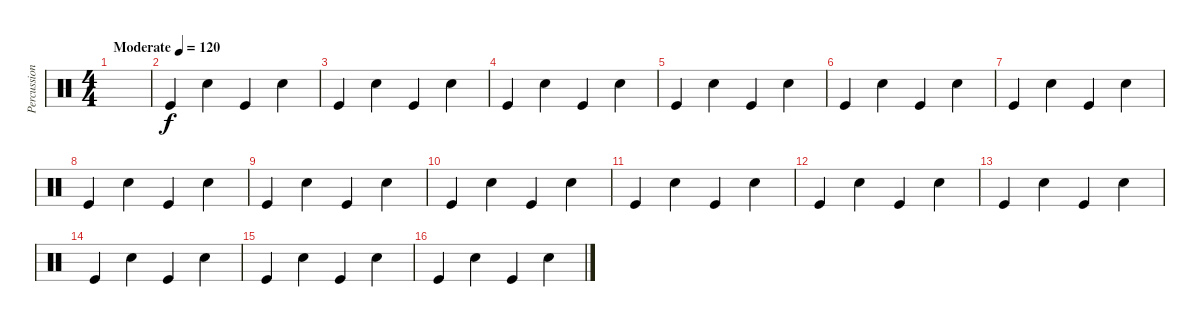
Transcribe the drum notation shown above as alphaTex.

\track ("Percussion" "Percussion") {instrument percussion}
\staff {score}
\articulation defaults
\ts (4 4)
\tempo (120 "Moderate")
\clef neutral
\ks c
|
"Kick (hit)".4 "Snare (hit) 2".4 "Kick (hit)".4 "Snare (hit) 2".4 |
"Kick (hit)".4 "Snare (hit) 2".4 "Kick (hit)".4 "Snare (hit) 2".4 |
"Kick (hit)".4 "Snare (hit) 2".4 "Kick (hit)".4 "Snare (hit) 2".4 |
"Kick (hit)".4 "Snare (hit) 2".4 "Kick (hit)".4 "Snare (hit) 2".4 |
"Kick (hit)".4 "Snare (hit) 2".4 "Kick (hit)".4 "Snare (hit) 2".4 |
"Kick (hit)".4 "Snare (hit) 2".4 "Kick (hit)".4 "Snare (hit) 2".4 |
"Kick (hit)".4 "Snare (hit) 2".4 "Kick (hit)".4 "Snare (hit) 2".4 |
"Kick (hit)".4 "Snare (hit) 2".4 "Kick (hit)".4 "Snare (hit) 2".4 |
"Kick (hit)".4 "Snare (hit) 2".4 "Kick (hit)".4 "Snare (hit) 2".4 |
"Kick (hit)".4 "Snare (hit) 2".4 "Kick (hit)".4 "Snare (hit) 2".4 |
"Kick (hit)".4 "Snare (hit) 2".4 "Kick (hit)".4 "Snare (hit) 2".4 |
"Kick (hit)".4 "Snare (hit) 2".4 "Kick (hit)".4 "Snare (hit) 2".4 |
"Kick (hit)".4 "Snare (hit) 2".4 "Kick (hit)".4 "Snare (hit) 2".4 |
"Kick (hit)".4 "Snare (hit) 2".4 "Kick (hit)".4 "Snare (hit) 2".4 |
"Kick (hit)".4 "Snare (hit) 2".4 "Kick (hit)".4 "Snare (hit) 2".4
